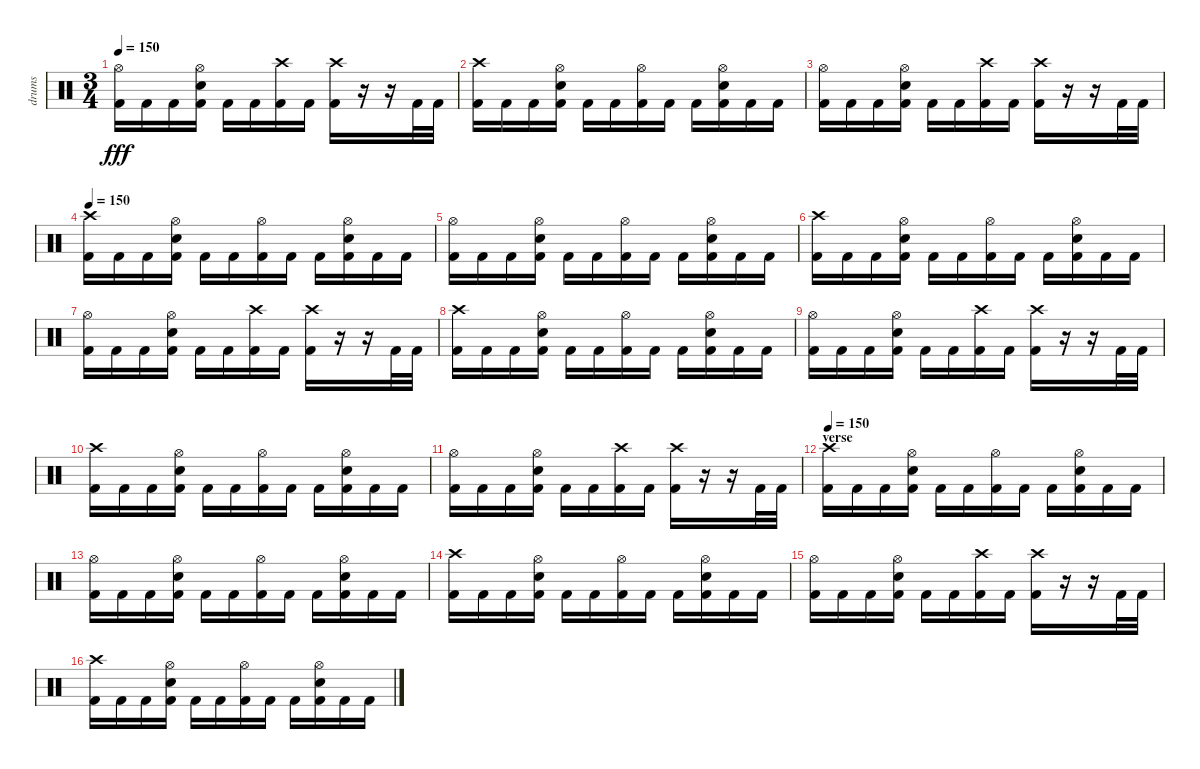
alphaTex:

\track ("drums" "drums") {instrument percussion}
\staff {score}
\articulation defaults
\ts (3 4)
\tempo 150
\clef neutral
\ks c
("Hi-Hat (open)" "Kick (hit) 2").16{dy fff} "Kick (hit) 2".16 "Kick (hit) 2".16 ("Hi-Hat (open)" "Snare (hit) 2" "Kick (hit) 2").16 "Kick (hit) 2".16 "Kick (hit) 2".16 ("Crash high (hit)" "Kick (hit) 2").16 "Kick (hit) 2".16 ("Crash high (hit)" "Kick (hit) 2").16 r.16 r.16 "Kick (hit) 2".32 "Kick (hit) 2".32 |
("Crash high (hit)" "Kick (hit) 2").16 "Kick (hit) 2".16 "Kick (hit) 2".16 ("Hi-Hat (open)" "Snare (hit) 2" "Kick (hit) 2").16 "Kick (hit) 2".16 "Kick (hit) 2".16 ("Hi-Hat (open)" "Kick (hit) 2").16 "Kick (hit) 2".16 "Kick (hit) 2".16 ("Hi-Hat (open)" "Snare (hit) 2" "Kick (hit) 2").16 "Kick (hit) 2".16 "Kick (hit) 2".16 |
("Hi-Hat (open)" "Kick (hit) 2").16 "Kick (hit) 2".16 "Kick (hit) 2".16 ("Hi-Hat (open)" "Snare (hit) 2" "Kick (hit) 2").16 "Kick (hit) 2".16 "Kick (hit) 2".16 ("Crash high (hit)" "Kick (hit) 2").16 "Kick (hit) 2".16 ("Crash high (hit)" "Kick (hit) 2").16 r.16 r.16 "Kick (hit) 2".32 "Kick (hit) 2".32 |
\tempo 150
("Crash high (hit)" "Kick (hit) 2").16 "Kick (hit) 2".16 "Kick (hit) 2".16 ("Hi-Hat (open)" "Snare (hit) 2" "Kick (hit) 2").16 "Kick (hit) 2".16 "Kick (hit) 2".16 ("Hi-Hat (open)" "Kick (hit) 2").16 "Kick (hit) 2".16 "Kick (hit) 2".16 ("Hi-Hat (open)" "Snare (hit) 2" "Kick (hit) 2").16 "Kick (hit) 2".16 "Kick (hit) 2".16 |
("Hi-Hat (open)" "Kick (hit) 2").16 "Kick (hit) 2".16 "Kick (hit) 2".16 ("Hi-Hat (open)" "Snare (hit) 2" "Kick (hit) 2").16 "Kick (hit) 2".16 "Kick (hit) 2".16 ("Hi-Hat (open)" "Kick (hit) 2").16 "Kick (hit) 2".16 "Kick (hit) 2".16 ("Hi-Hat (open)" "Snare (hit) 2" "Kick (hit) 2").16 "Kick (hit) 2".16 "Kick (hit) 2".16 |
("Crash high (hit)" "Kick (hit) 2").16 "Kick (hit) 2".16 "Kick (hit) 2".16 ("Hi-Hat (open)" "Snare (hit) 2" "Kick (hit) 2").16 "Kick (hit) 2".16 "Kick (hit) 2".16 ("Hi-Hat (open)" "Kick (hit) 2").16 "Kick (hit) 2".16 "Kick (hit) 2".16 ("Hi-Hat (open)" "Snare (hit) 2" "Kick (hit) 2").16 "Kick (hit) 2".16 "Kick (hit) 2".16 |
("Hi-Hat (open)" "Kick (hit) 2").16 "Kick (hit) 2".16 "Kick (hit) 2".16 ("Hi-Hat (open)" "Snare (hit) 2" "Kick (hit) 2").16 "Kick (hit) 2".16 "Kick (hit) 2".16 ("Crash high (hit)" "Kick (hit) 2").16 "Kick (hit) 2".16 ("Crash high (hit)" "Kick (hit) 2").16 r.16 r.16 "Kick (hit) 2".32 "Kick (hit) 2".32 |
("Crash high (hit)" "Kick (hit) 2").16 "Kick (hit) 2".16 "Kick (hit) 2".16 ("Hi-Hat (open)" "Snare (hit) 2" "Kick (hit) 2").16 "Kick (hit) 2".16 "Kick (hit) 2".16 ("Hi-Hat (open)" "Kick (hit) 2").16 "Kick (hit) 2".16 "Kick (hit) 2".16 ("Hi-Hat (open)" "Snare (hit) 2" "Kick (hit) 2").16 "Kick (hit) 2".16 "Kick (hit) 2".16 |
("Hi-Hat (open)" "Kick (hit) 2").16 "Kick (hit) 2".16 "Kick (hit) 2".16 ("Hi-Hat (open)" "Snare (hit) 2" "Kick (hit) 2").16 "Kick (hit) 2".16 "Kick (hit) 2".16 ("Crash high (hit)" "Kick (hit) 2").16 "Kick (hit) 2".16 ("Crash high (hit)" "Kick (hit) 2").16 r.16 r.16 "Kick (hit) 2".32 "Kick (hit) 2".32 |
("Crash high (hit)" "Kick (hit) 2").16 "Kick (hit) 2".16 "Kick (hit) 2".16 ("Hi-Hat (open)" "Snare (hit) 2" "Kick (hit) 2").16 "Kick (hit) 2".16 "Kick (hit) 2".16 ("Hi-Hat (open)" "Kick (hit) 2").16 "Kick (hit) 2".16 "Kick (hit) 2".16 ("Hi-Hat (open)" "Snare (hit) 2" "Kick (hit) 2").16 "Kick (hit) 2".16 "Kick (hit) 2".16 |
("Hi-Hat (open)" "Kick (hit) 2").16 "Kick (hit) 2".16 "Kick (hit) 2".16 ("Hi-Hat (open)" "Snare (hit) 2" "Kick (hit) 2").16 "Kick (hit) 2".16 "Kick (hit) 2".16 ("Crash high (hit)" "Kick (hit) 2").16 "Kick (hit) 2".16 ("Crash high (hit)" "Kick (hit) 2").16 r.16 r.16 "Kick (hit) 2".32 "Kick (hit) 2".32 |
\section ("" "verse")
\tempo 150
("Crash high (hit)" "Kick (hit) 2").16 "Kick (hit) 2".16 "Kick (hit) 2".16 ("Hi-Hat (open)" "Snare (hit) 2" "Kick (hit) 2").16 "Kick (hit) 2".16 "Kick (hit) 2".16 ("Hi-Hat (open)" "Kick (hit) 2").16 "Kick (hit) 2".16 "Kick (hit) 2".16 ("Hi-Hat (open)" "Snare (hit) 2" "Kick (hit) 2").16 "Kick (hit) 2".16 "Kick (hit) 2".16 |
("Hi-Hat (open)" "Kick (hit) 2").16 "Kick (hit) 2".16 "Kick (hit) 2".16 ("Hi-Hat (open)" "Snare (hit) 2" "Kick (hit) 2").16 "Kick (hit) 2".16 "Kick (hit) 2".16 ("Hi-Hat (open)" "Kick (hit) 2").16 "Kick (hit) 2".16 "Kick (hit) 2".16 ("Hi-Hat (open)" "Snare (hit) 2" "Kick (hit) 2").16 "Kick (hit) 2".16 "Kick (hit) 2".16 |
("Crash high (hit)" "Kick (hit) 2").16 "Kick (hit) 2".16 "Kick (hit) 2".16 ("Hi-Hat (open)" "Snare (hit) 2" "Kick (hit) 2").16 "Kick (hit) 2".16 "Kick (hit) 2".16 ("Hi-Hat (open)" "Kick (hit) 2").16 "Kick (hit) 2".16 "Kick (hit) 2".16 ("Hi-Hat (open)" "Snare (hit) 2" "Kick (hit) 2").16 "Kick (hit) 2".16 "Kick (hit) 2".16 |
("Hi-Hat (open)" "Kick (hit) 2").16 "Kick (hit) 2".16 "Kick (hit) 2".16 ("Hi-Hat (open)" "Snare (hit) 2" "Kick (hit) 2").16 "Kick (hit) 2".16 "Kick (hit) 2".16 ("Crash high (hit)" "Kick (hit) 2").16 "Kick (hit) 2".16 ("Crash high (hit)" "Kick (hit) 2").16 r.16 r.16 "Kick (hit) 2".32 "Kick (hit) 2".32 |
("Crash high (hit)" "Kick (hit) 2").16 "Kick (hit) 2".16 "Kick (hit) 2".16 ("Hi-Hat (open)" "Snare (hit) 2" "Kick (hit) 2").16 "Kick (hit) 2".16 "Kick (hit) 2".16 ("Hi-Hat (open)" "Kick (hit) 2").16 "Kick (hit) 2".16 "Kick (hit) 2".16 ("Hi-Hat (open)" "Snare (hit) 2" "Kick (hit) 2").16 "Kick (hit) 2".16 "Kick (hit) 2".16
